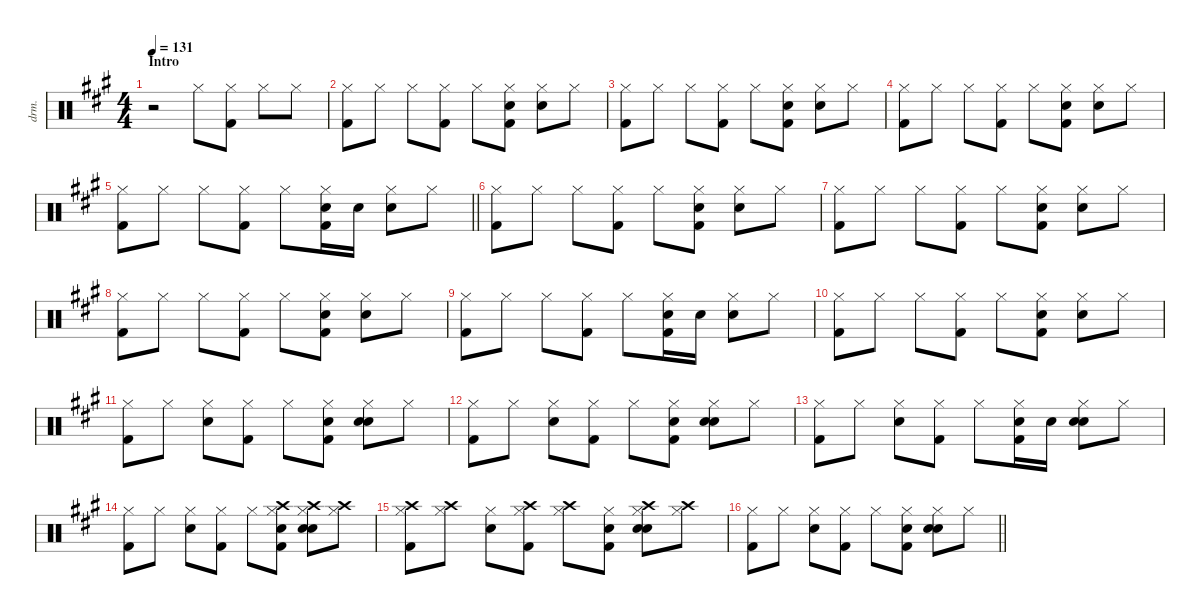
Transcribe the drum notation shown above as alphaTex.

\defaultSystemsLayout 4
\hideDynamics
\bracketExtendMode nobrackets
\otherSystemsTrackNameOrientation horizontal
\track ("Percussion" "drm.") {defaultSystemsLayout 4 instrument percussion}
\staff {score}
\articulation defaults
\ts (4 4)
\beaming (8 2 2 2 2)
\section ("" "Intro")
\tempo 131
\clef neutral
\ks f#minor
r.2{dy f beam Down} "Hi-Hat (closed)"{acc forcenatural}.8{beam Down} ("Hi-Hat (closed)"{acc forcenatural} "Kick (hit) 2"{acc forcenatural}).8{beam Down} "Hi-Hat (closed)"{acc forcenatural}.8{beam Down} "Hi-Hat (closed)"{acc forcenatural}.8{beam Down} |
("Hi-Hat (closed)"{acc forcenatural} "Kick (hit) 2"{acc forcenatural}).8{beam Down} "Hi-Hat (closed)"{acc forcenatural}.8{beam Down} "Hi-Hat (closed)"{acc forcenatural}.8{beam Down} ("Hi-Hat (closed)"{acc forcenatural} "Kick (hit) 2"{acc forcenatural}).8{beam Down} "Hi-Hat (closed)"{acc forcenatural}.8{beam Down} ("Hi-Hat (closed)"{acc forcenatural} "Hand Clap (hit)"{acc forcenatural} "Kick (hit) 2"{acc forcenatural}).8{beam Down} ("Hi-Hat (closed)"{acc forcenatural} "Hand Clap (hit)"{acc forcenatural}).8{beam Down} "Hi-Hat (closed)"{acc forcenatural}.8{beam Down} |
("Hi-Hat (closed)"{acc forcenatural} "Kick (hit) 2"{acc forcenatural}).8{beam Down} "Hi-Hat (closed)"{acc forcenatural}.8{beam Down} "Hi-Hat (closed)"{acc forcenatural}.8{beam Down} ("Hi-Hat (closed)"{acc forcenatural} "Kick (hit) 2"{acc forcenatural}).8{beam Down} "Hi-Hat (closed)"{acc forcenatural}.8{beam Down} ("Hi-Hat (closed)"{acc forcenatural} "Hand Clap (hit)"{acc forcenatural} "Kick (hit) 2"{acc forcenatural}).8{beam Down} ("Hi-Hat (closed)"{acc forcenatural} "Hand Clap (hit)"{acc forcenatural}).8{beam Down} "Hi-Hat (closed)"{acc forcenatural}.8{beam Down} |
("Hi-Hat (closed)"{acc forcenatural} "Kick (hit) 2"{acc forcenatural}).8{beam Down} "Hi-Hat (closed)"{acc forcenatural}.8{beam Down} "Hi-Hat (closed)"{acc forcenatural}.8{beam Down} ("Hi-Hat (closed)"{acc forcenatural} "Kick (hit) 2"{acc forcenatural}).8{beam Down} "Hi-Hat (closed)"{acc forcenatural}.8{beam Down} ("Hi-Hat (closed)"{acc forcenatural} "Hand Clap (hit)"{acc forcenatural} "Kick (hit) 2"{acc forcenatural}).8{beam Down} ("Hi-Hat (closed)"{acc forcenatural} "Hand Clap (hit)"{acc forcenatural}).8{beam Down} "Hi-Hat (closed)"{acc forcenatural}.8{beam Down} |
\barLineRight lightlight
("Hi-Hat (closed)"{acc forcenatural} "Kick (hit) 2"{acc forcenatural}).8{beam Down} "Hi-Hat (closed)"{acc forcenatural}.8{beam Down} "Hi-Hat (closed)"{acc forcenatural}.8{beam Down} ("Hi-Hat (closed)"{acc forcenatural} "Kick (hit) 2"{acc forcenatural}).8{beam Down} "Hi-Hat (closed)"{acc forcenatural}.8{beam Down} ("Hi-Hat (closed)"{acc forcenatural} "Hand Clap (hit)"{acc forcenatural} "Kick (hit) 2"{acc forcenatural}).16{beam Down} "Hand Clap (hit)"{acc forcenatural}.16{beam Down} ("Hi-Hat (closed)"{acc forcenatural} "Hand Clap (hit)"{acc forcenatural}).8{beam Down} "Hi-Hat (closed)"{acc forcenatural}.8{beam Down} |
("Hi-Hat (closed)"{acc forcenatural} "Kick (hit) 2"{acc forcenatural}).8{beam Down} "Hi-Hat (closed)"{acc forcenatural}.8{beam Down} "Hi-Hat (closed)"{acc forcenatural}.8{beam Down} ("Hi-Hat (closed)"{acc forcenatural} "Kick (hit) 2"{acc forcenatural}).8{beam Down} "Hi-Hat (closed)"{acc forcenatural}.8{beam Down} ("Hi-Hat (closed)"{acc forcenatural} "Hand Clap (hit)"{acc forcenatural} "Kick (hit) 2"{acc forcenatural}).8{beam Down} ("Hi-Hat (closed)"{acc forcenatural} "Hand Clap (hit)"{acc forcenatural}).8{beam Down} "Hi-Hat (closed)"{acc forcenatural}.8{beam Down} |
("Hi-Hat (closed)"{acc forcenatural} "Kick (hit) 2"{acc forcenatural}).8{beam Down} "Hi-Hat (closed)"{acc forcenatural}.8{beam Down} "Hi-Hat (closed)"{acc forcenatural}.8{beam Down} ("Hi-Hat (closed)"{acc forcenatural} "Kick (hit) 2"{acc forcenatural}).8{beam Down} "Hi-Hat (closed)"{acc forcenatural}.8{beam Down} ("Hi-Hat (closed)"{acc forcenatural} "Hand Clap (hit)"{acc forcenatural} "Kick (hit) 2"{acc forcenatural}).8{beam Down} ("Hi-Hat (closed)"{acc forcenatural} "Hand Clap (hit)"{acc forcenatural}).8{beam Down} "Hi-Hat (closed)"{acc forcenatural}.8{beam Down} |
("Hi-Hat (closed)"{acc forcenatural} "Kick (hit) 2"{acc forcenatural}).8{beam Down} "Hi-Hat (closed)"{acc forcenatural}.8{beam Down} "Hi-Hat (closed)"{acc forcenatural}.8{beam Down} ("Hi-Hat (closed)"{acc forcenatural} "Kick (hit) 2"{acc forcenatural}).8{beam Down} "Hi-Hat (closed)"{acc forcenatural}.8{beam Down} ("Hi-Hat (closed)"{acc forcenatural} "Hand Clap (hit)"{acc forcenatural} "Kick (hit) 2"{acc forcenatural}).8{beam Down} ("Hi-Hat (closed)"{acc forcenatural} "Hand Clap (hit)"{acc forcenatural}).8{beam Down} "Hi-Hat (closed)"{acc forcenatural}.8{beam Down} |
("Hi-Hat (closed)"{acc forcenatural} "Kick (hit) 2"{acc forcenatural}).8{beam Down} "Hi-Hat (closed)"{acc forcenatural}.8{beam Down} "Hi-Hat (closed)"{acc forcenatural}.8{beam Down} ("Hi-Hat (closed)"{acc forcenatural} "Kick (hit) 2"{acc forcenatural}).8{beam Down} "Hi-Hat (closed)"{acc forcenatural}.8{beam Down} ("Hi-Hat (closed)"{acc forcenatural} "Hand Clap (hit)"{acc forcenatural} "Kick (hit) 2"{acc forcenatural}).16{beam Down} "Hand Clap (hit)"{acc forcenatural}.16{beam Down} ("Hi-Hat (closed)"{acc forcenatural} "Hand Clap (hit)"{acc forcenatural}).8{beam Down} "Hi-Hat (closed)"{acc forcenatural}.8{beam Down} |
("Hi-Hat (closed)"{acc forcenatural} "Kick (hit) 2"{acc forcenatural}).8{beam Down} "Hi-Hat (closed)"{acc forcenatural}.8{beam Down} "Hi-Hat (closed)"{acc forcenatural}.8{beam Down} ("Hi-Hat (closed)"{acc forcenatural} "Kick (hit) 2"{acc forcenatural}).8{beam Down} "Hi-Hat (closed)"{acc forcenatural}.8{beam Down} ("Hi-Hat (closed)"{acc forcenatural} "Hand Clap (hit)"{acc forcenatural} "Kick (hit) 2"{acc forcenatural}).8{beam Down} ("Hi-Hat (closed)"{acc forcenatural} "Hand Clap (hit)"{acc forcenatural}).8{beam Down} "Hi-Hat (closed)"{acc forcenatural}.8{beam Down} |
("Hi-Hat (closed)"{acc forcenatural} "Kick (hit) 2"{acc forcenatural}).8{beam Down} "Hi-Hat (closed)"{acc forcenatural}.8{beam Down} ("Hi-Hat (closed)"{acc forcenatural} "Snare (hit) 2"{acc forcenatural}).8{beam Down} ("Hi-Hat (closed)"{acc forcenatural} "Kick (hit) 2"{acc forcenatural}).8{beam Down} "Hi-Hat (closed)"{acc forcenatural}.8{beam Down} ("Hi-Hat (closed)"{acc forcenatural} "Hand Clap (hit)"{acc forcenatural} "Kick (hit) 2"{acc forcenatural}).8{beam Down} ("Hi-Hat (closed)"{acc forcenatural} "Hand Clap (hit)"{acc forcenatural} "Snare (hit) 2"{acc forcenatural}).8{beam Down} "Hi-Hat (closed)"{acc forcenatural}.8{beam Down} |
("Hi-Hat (closed)"{acc forcenatural} "Kick (hit) 2"{acc forcenatural}).8{beam Down} "Hi-Hat (closed)"{acc forcenatural}.8{beam Down} ("Hi-Hat (closed)"{acc forcenatural} "Snare (hit) 2"{acc forcenatural}).8{beam Down} ("Hi-Hat (closed)"{acc forcenatural} "Kick (hit) 2"{acc forcenatural}).8{beam Down} "Hi-Hat (closed)"{acc forcenatural}.8{beam Down} ("Hi-Hat (closed)"{acc forcenatural} "Hand Clap (hit)"{acc forcenatural} "Kick (hit) 2"{acc forcenatural}).8{beam Down} ("Hi-Hat (closed)"{acc forcenatural} "Hand Clap (hit)"{acc forcenatural} "Snare (hit) 2"{acc forcenatural}).8{beam Down} "Hi-Hat (closed)"{acc forcenatural}.8{beam Down} |
("Hi-Hat (closed)"{acc forcenatural} "Kick (hit) 2"{acc forcenatural}).8{beam Down} "Hi-Hat (closed)"{acc forcenatural}.8{beam Down} ("Hi-Hat (closed)"{acc forcenatural} "Snare (hit) 2"{acc forcenatural}).8{beam Down} ("Hi-Hat (closed)"{acc forcenatural} "Kick (hit) 2"{acc forcenatural}).8{beam Down} "Hi-Hat (closed)"{acc forcenatural}.8{beam Down} ("Hi-Hat (closed)"{acc forcenatural} "Hand Clap (hit)"{acc forcenatural} "Kick (hit) 2"{acc forcenatural}).16{beam Down} "Hand Clap (hit)"{acc forcenatural}.16{beam Down} ("Hi-Hat (closed)"{acc forcenatural} "Hand Clap (hit)"{acc forcenatural} "Snare (hit) 2"{acc forcenatural}).8{beam Down} "Hi-Hat (closed)"{acc forcenatural}.8{beam Down} |
("Hi-Hat (closed)"{acc forcenatural} "Kick (hit) 2"{acc forcenatural}).8{beam Down} "Hi-Hat (closed)"{acc forcenatural}.8{beam Down} ("Hi-Hat (closed)"{acc forcenatural} "Snare (hit) 2"{acc forcenatural}).8{beam Down} ("Hi-Hat (closed)"{acc forcenatural} "Kick (hit) 2"{acc forcenatural}).8{beam Down} "Hi-Hat (closed)"{acc forcenatural}.8{beam Down} ("Crash high (hit)"{acc forcenatural} "Hi-Hat (closed)"{acc forcenatural} "Hand Clap (hit)"{acc forcenatural} "Kick (hit) 2"{acc forcenatural}).8{beam Down} ("Crash high (hit)"{acc forcenatural} "Hi-Hat (closed)"{acc forcenatural} "Hand Clap (hit)"{acc forcenatural} "Snare (hit) 2"{acc forcenatural}).8{beam Down} ("Crash high (hit)"{acc forcenatural} "Hi-Hat (closed)"{acc forcenatural}).8{beam Down} |
("Crash high (hit)"{acc forcenatural} "Hi-Hat (closed)"{acc forcenatural} "Kick (hit) 2"{acc forcenatural}).8{beam Down} ("Crash high (hit)"{acc forcenatural} "Hi-Hat (closed)"{acc forcenatural}).8{beam Down} ("Hi-Hat (closed)"{acc forcenatural} "Snare (hit) 2"{acc forcenatural}).8{beam Down} ("Crash high (hit)"{acc forcenatural} "Hi-Hat (closed)"{acc forcenatural} "Kick (hit) 2"{acc forcenatural}).8{beam Down} ("Crash high (hit)"{acc forcenatural} "Hi-Hat (closed)"{acc forcenatural}).8{beam Down} ("Hi-Hat (closed)"{acc forcenatural} "Hand Clap (hit)"{acc forcenatural} "Kick (hit) 2"{acc forcenatural}).8{beam Down} ("Crash high (hit)"{acc forcenatural} "Hi-Hat (closed)"{acc forcenatural} "Hand Clap (hit)"{acc forcenatural} "Snare (hit) 2"{acc forcenatural}).8{beam Down} ("Crash high (hit)"{acc forcenatural} "Hi-Hat (closed)"{acc forcenatural}).8{beam Down} |
\barLineRight lightlight
("Hi-Hat (closed)"{acc forcenatural} "Kick (hit) 2"{acc forcenatural}).8{beam Down} "Hi-Hat (closed)"{acc forcenatural}.8{beam Down} ("Hi-Hat (closed)"{acc forcenatural} "Snare (hit) 2"{acc forcenatural}).8{beam Down} ("Hi-Hat (closed)"{acc forcenatural} "Kick (hit) 2"{acc forcenatural}).8{beam Down} "Hi-Hat (closed)"{acc forcenatural}.8{beam Down} ("Hi-Hat (closed)"{acc forcenatural} "Hand Clap (hit)"{acc forcenatural} "Kick (hit) 2"{acc forcenatural}).8{beam Down} ("Hi-Hat (closed)"{acc forcenatural} "Hand Clap (hit)"{acc forcenatural} "Snare (hit) 2"{acc forcenatural}).8{beam Down} "Hi-Hat (closed)"{acc forcenatural}.8{beam Down}
